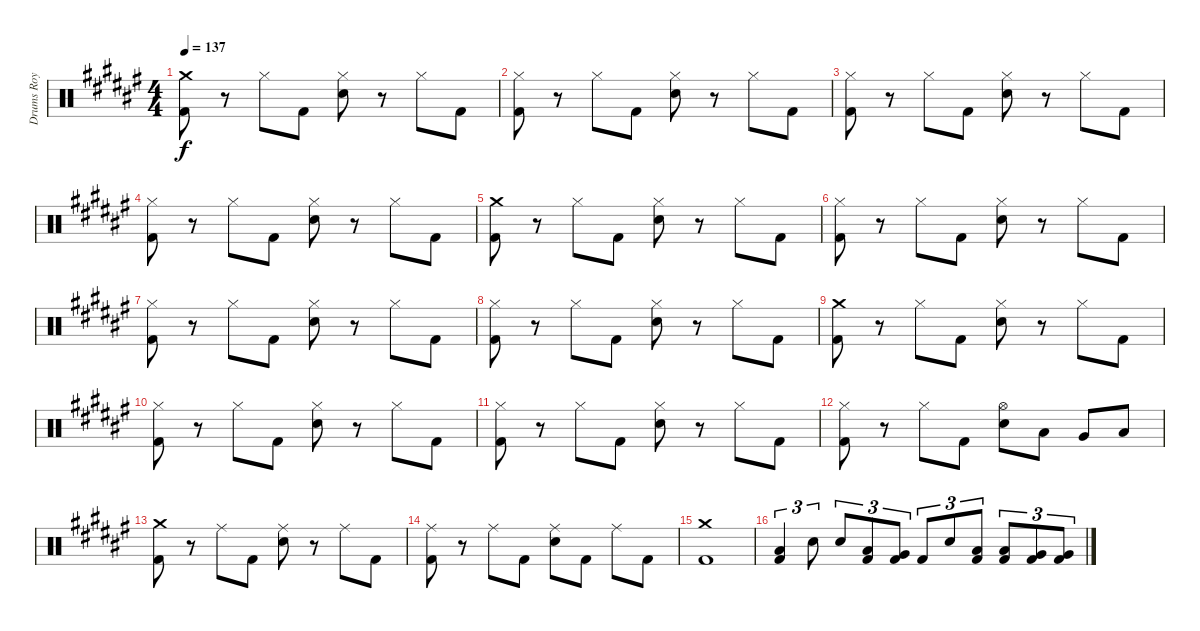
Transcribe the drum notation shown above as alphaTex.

\track ("Drums Roy mayorga" "Drums Roy ") {instrument percussion}
\staff {score}
\articulation defaults
\ts (4 4)
\tempo 137
\clef neutral
\ks d#minor
("Crash medium (hit)" "Kick (hit) 2").8{dy f} r.8 "Hi-Hat (closed)".8 "Kick (hit) 2".8 ("Hi-Hat (closed)" "Electric Snare (hit)").8 r.8 "Hi-Hat (closed)".8 "Kick (hit) 2".8 |
("Hi-Hat (closed)" "Kick (hit) 2").8 r.8 "Hi-Hat (closed)".8 "Kick (hit) 2".8 ("Hi-Hat (closed)" "Electric Snare (hit)").8 r.8 "Hi-Hat (closed)".8 "Kick (hit) 2".8 |
("Hi-Hat (closed)" "Kick (hit) 2").8 r.8 "Hi-Hat (closed)".8 "Kick (hit) 2".8 ("Hi-Hat (closed)" "Electric Snare (hit)").8 r.8 "Hi-Hat (closed)".8 "Kick (hit) 2".8 |
("Hi-Hat (closed)" "Kick (hit) 2").8 r.8 "Hi-Hat (closed)".8 "Kick (hit) 2".8 ("Hi-Hat (closed)" "Electric Snare (hit)").8 r.8 "Hi-Hat (closed)".8 "Kick (hit) 2".8 |
("Crash medium (hit)" "Kick (hit) 2").8 r.8 "Hi-Hat (closed)".8 "Kick (hit) 2".8 ("Hi-Hat (closed)" "Electric Snare (hit)").8 r.8 "Hi-Hat (closed)".8 "Kick (hit) 2".8 |
("Hi-Hat (closed)" "Kick (hit) 2").8 r.8 "Hi-Hat (closed)".8 "Kick (hit) 2".8 ("Hi-Hat (closed)" "Electric Snare (hit)").8 r.8 "Hi-Hat (closed)".8 "Kick (hit) 2".8 |
("Hi-Hat (closed)" "Kick (hit) 2").8 r.8 "Hi-Hat (closed)".8 "Kick (hit) 2".8 ("Hi-Hat (closed)" "Electric Snare (hit)").8 r.8 "Hi-Hat (closed)".8 "Kick (hit) 2".8 |
("Hi-Hat (closed)" "Kick (hit) 2").8 r.8 "Hi-Hat (closed)".8 "Kick (hit) 2".8 ("Hi-Hat (closed)" "Electric Snare (hit)").8 r.8 "Hi-Hat (closed)".8 "Kick (hit) 2".8 |
("Crash medium (hit)" "Kick (hit) 2").8 r.8 "Hi-Hat (closed)".8 "Kick (hit) 2".8 ("Hi-Hat (closed)" "Electric Snare (hit)").8 r.8 "Hi-Hat (closed)".8 "Kick (hit) 2".8 |
("Hi-Hat (closed)" "Kick (hit) 2").8 r.8 "Hi-Hat (closed)".8 "Kick (hit) 2".8 ("Hi-Hat (closed)" "Electric Snare (hit)").8 r.8 "Hi-Hat (closed)".8 "Kick (hit) 2".8 |
("Hi-Hat (closed)" "Kick (hit) 2").8 r.8 "Hi-Hat (closed)".8 "Kick (hit) 2".8 ("Hi-Hat (closed)" "Electric Snare (hit)").8 r.8 "Hi-Hat (closed)".8 "Kick (hit) 2".8 |
("Hi-Hat (closed)" "Kick (hit) 2").8 r.8 "Hi-Hat (closed)".8 "Kick (hit) 2".8 ("Hi-Hat (open)" "Electric Snare (hit)").8 "Low Tom (hit)".8 "Very Low Tom (hit)".8 "Low Floor Tom (hit)".8 |
("Crash medium (hit)" "Kick (hit) 2").8 r.8 "Ride (middle)".8 "Kick (hit) 2".8 ("Ride (middle)" "Electric Snare (hit)").8 r.8 "Ride (middle)".8 "Kick (hit) 2".8 |
("Ride (middle)" "Kick (hit) 2").8 r.8 "Ride (middle)".8 "Kick (hit) 2".8 ("Ride (middle)" "Electric Snare (hit)").8 "Kick (hit) 2".8 "Ride (middle)".8 "Kick (hit) 2".8 |
("Crash medium (hit)" "Kick (hit) 2").1 |
("Low Tom (hit)" "Kick (hit) 2").4{tu (3 2)} "Electric Snare (hit)".8{tu (3 2)} "Electric Snare (hit)".8{tu (3 2)} ("Low Tom (hit)" "Kick (hit) 2").8{tu (3 2)} ("Very Low Tom (hit)" "Kick (hit) 2").8{tu (3 2)} "Kick (hit) 2".8{tu (3 2)} "Electric Snare (hit)".8{tu (3 2)} ("Low Tom (hit)" "Kick (hit) 2").8{tu (3 2)} ("Low Tom (hit)" "Kick (hit) 2").8{tu (3 2)} ("Very Low Tom (hit)" "Kick (hit) 2").8{tu (3 2)} ("Very Low Tom (hit)" "Kick (hit) 2").8{tu (3 2)}
